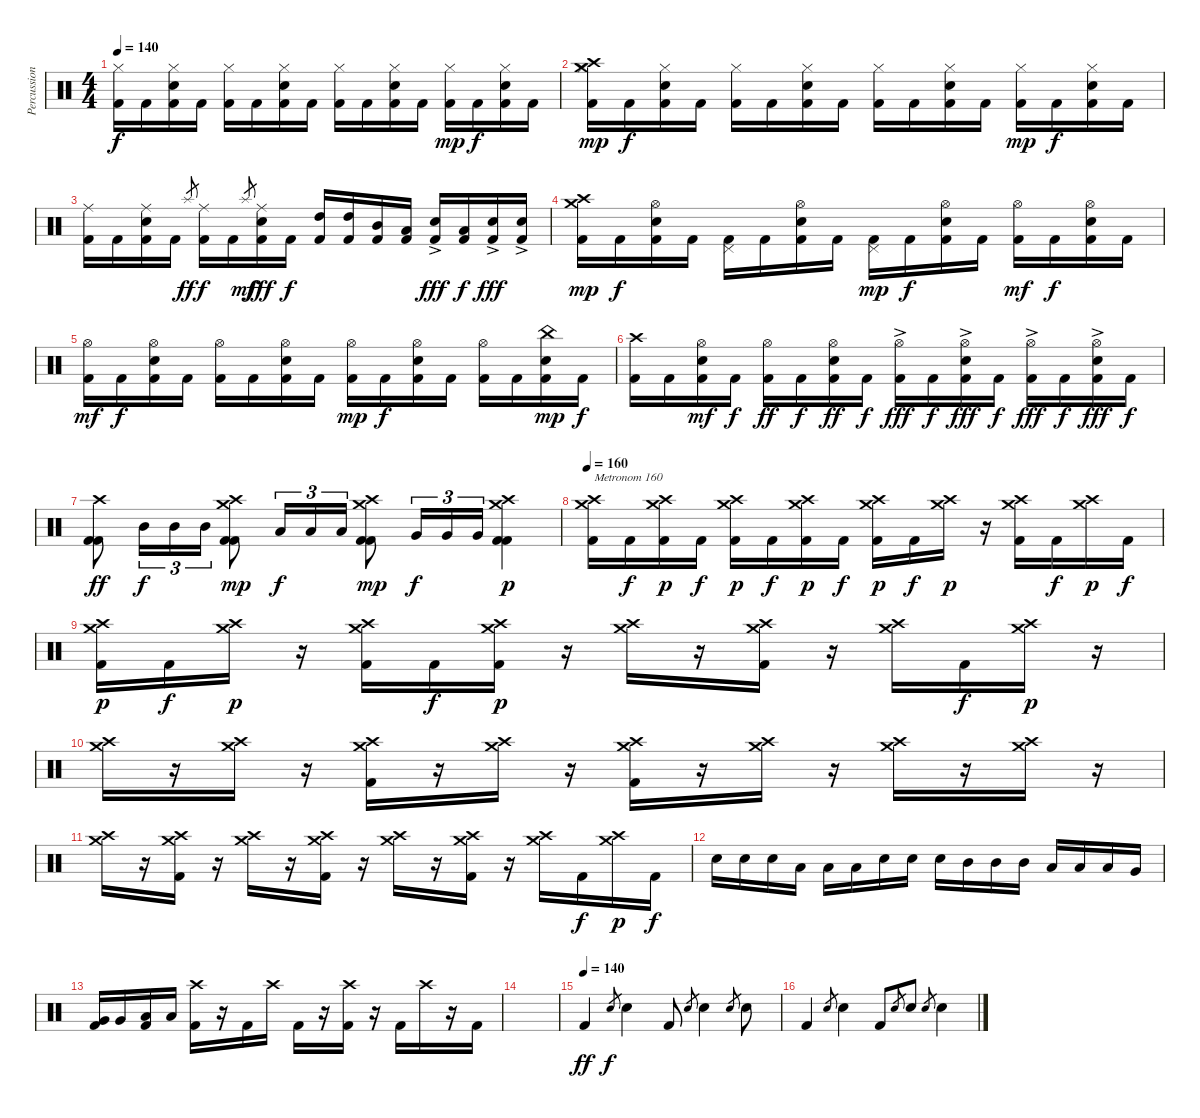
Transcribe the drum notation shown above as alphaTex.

\track ("Percussion" "Percussion") {instrument percussion}
\staff {score}
\articulation defaults
\ts (4 4)
\tempo 140
\clef neutral
\ks c
("Hi-Hat (closed)" "Kick (hit) 2").16{dy f} "Kick (hit) 2".16 ("Hi-Hat (closed)" "Electric Snare (hit)" "Kick (hit) 2").16 "Kick (hit) 2".16 ("Hi-Hat (closed)" "Kick (hit) 2").16 "Kick (hit) 2".16 ("Hi-Hat (closed)" "Electric Snare (hit)" "Kick (hit) 2").16 "Kick (hit) 2".16 ("Hi-Hat (closed)" "Kick (hit) 2").16 "Kick (hit) 2".16 ("Hi-Hat (closed)" "Electric Snare (hit)" "Kick (hit) 2").16 "Kick (hit) 2".16 ("Hi-Hat (closed)" "Kick (hit) 2").16{dy mp} "Kick (hit) 2".16{dy f} ("Hi-Hat (closed)" "Electric Snare (hit)" "Kick (hit) 2").16 "Kick (hit) 2".16 |
("Crash medium (hit)" "Crash high (hit)" "Hi-Hat (closed)" "Kick (hit) 2").16{dy mp} "Kick (hit) 2".16{dy f} ("Hi-Hat (closed)" "Electric Snare (hit)" "Kick (hit) 2").16 "Kick (hit) 2".16 ("Hi-Hat (closed)" "Kick (hit) 2").16 "Kick (hit) 2".16 ("Hi-Hat (closed)" "Electric Snare (hit)" "Kick (hit) 2").16 "Kick (hit) 2".16 ("Hi-Hat (closed)" "Kick (hit) 2").16 "Kick (hit) 2".16 ("Hi-Hat (closed)" "Electric Snare (hit)" "Kick (hit) 2").16 "Kick (hit) 2".16 ("Hi-Hat (closed)" "Kick (hit) 2").16{dy mp} "Kick (hit) 2".16{dy f} ("Hi-Hat (closed)" "Electric Snare (hit)" "Kick (hit) 2").16 "Kick (hit) 2".16 |
("Ride (middle)" "Kick (hit) 2").16 "Kick (hit) 2".16 ("Ride (middle)" "Electric Snare (hit)" "Kick (hit) 2").16 "Kick (hit) 2".16 "Splash (hit)".8{gr dy ff} ("Ride (middle)" "Kick (hit) 2").16{dy f} "Kick (hit) 2".16 "Splash (hit)".8{gr dy mf} ("Ride (middle)" "Electric Snare (hit)" "Kick (hit) 2").16{dy fff} "Kick (hit) 2".16{dy f} ("High Tom (hit)" "Kick (hit) 2").16 ("High Tom (hit)" "Kick (hit) 2").16 ("Mid Tom (hit)" "Kick (hit) 2").16 ("Low Tom (hit)" "Kick (hit) 2").16 ("Electric Snare (hit)"{ac} "Kick (hit) 2").16{dy fff} ("Low Tom (hit)" "Kick (hit) 2").16{dy f} ("Electric Snare (hit)"{ac} "Kick (hit) 2").16{dy fff} ("Electric Snare (hit)"{ac} "Kick (hit) 2").16 |
("Crash medium (hit)" "Crash high (hit)" "Kick (hit) 2").16{dy mp} "Kick (hit) 2".16{dy f} ("Hi-Hat (open)" "Electric Snare (hit)" "Kick (hit) 2").16 "Kick (hit) 2".16 ("Pedal Hi-Hat (hit)" "Kick (hit) 2").16 "Kick (hit) 2".16 ("Hi-Hat (open)" "Electric Snare (hit)" "Kick (hit) 2").16 "Kick (hit) 2".16 ("Pedal Hi-Hat (hit)" "Kick (hit) 2").16{dy mp} "Kick (hit) 2".16{dy f} ("Hi-Hat (open)" "Electric Snare (hit)" "Kick (hit) 2").16 "Kick (hit) 2".16 ("Hi-Hat (open)" "Kick (hit) 2").16{dy mf} "Kick (hit) 2".16{dy f} ("Hi-Hat (open)" "Electric Snare (hit)" "Kick (hit) 2").16 "Kick (hit) 2".16 |
("Hi-Hat (open)" "Kick (hit) 2").16{dy mf} "Kick (hit) 2".16{dy f} ("Hi-Hat (open)" "Electric Snare (hit)" "Kick (hit) 2").16 "Kick (hit) 2".16 ("Hi-Hat (open)" "Kick (hit) 2").16 "Kick (hit) 2".16 ("Hi-Hat (open)" "Electric Snare (hit)" "Kick (hit) 2").16 "Kick (hit) 2".16 ("Hi-Hat (open)" "Kick (hit) 2").16{dy mp} "Kick (hit) 2".16{dy f} ("Hi-Hat (open)" "Electric Snare (hit)" "Kick (hit) 2").16 "Kick (hit) 2".16 ("Hi-Hat (open)" "Kick (hit) 2").16 "Kick (hit) 2".16 ("China (hit)" "Electric Snare (hit)" "Kick (hit) 2").16{dy mp} "Kick (hit) 2".16{dy f} |
("Crash high (hit)" "Kick (hit) 2").16 "Kick (hit) 2".16 ("Hi-Hat (open)" "Electric Snare (hit)" "Kick (hit) 2").16{dy mf} "Kick (hit) 2".16{dy f} ("Hi-Hat (open)" "Kick (hit) 2").16{dy ff} "Kick (hit) 2".16{dy f} ("Hi-Hat (open)" "Electric Snare (hit)" "Kick (hit) 2").16{dy ff} "Kick (hit) 2".16{dy f} ("Hi-Hat (open)"{ac} "Kick (hit) 2").16{dy fff} "Kick (hit) 2".16{dy f} ("Hi-Hat (open)"{ac} "Electric Snare (hit)" "Kick (hit) 2").16{dy fff} "Kick (hit) 2".16{dy f} ("Hi-Hat (open)"{ac} "Kick (hit) 2").16{dy fff} "Kick (hit) 2".16{dy f} ("Hi-Hat (open)"{ac} "Electric Snare (hit)" "Kick (hit) 2").16{dy fff} "Kick (hit) 2".16{dy f} |
("Crash high (hit)" "Kick (hit) 2" "Kick (hit) 2").8{dy ff} "Mid Tom (hit)".16{tu (3 2) dy f} "Mid Tom (hit)".16{tu (3 2)} "Mid Tom (hit)".16{tu (3 2)} ("Crash high (hit)" "Crash medium (hit)" "Kick (hit) 2" "Kick (hit) 2").8{dy mp} "Low Tom (hit)".16{tu (3 2) dy f} "Low Tom (hit)".16{tu (3 2)} "Low Tom (hit)".16{tu (3 2)} ("Crash medium (hit)" "Crash high (hit)" "Kick (hit) 2" "Kick (hit) 2").8{dy mp} "Very Low Tom (hit)".16{tu (3 2) dy f} "Very Low Tom (hit)".16{tu (3 2)} "Very Low Tom (hit)".16{tu (3 2)} ("Crash medium (hit)" "Crash high (hit)" "Kick (hit) 2" "Kick (hit) 2").4{dy p} |
\tempo 160
("Crash high (hit)" "Crash medium (hit)" "Kick (hit) 2").16{txt "Metronom 160"} "Kick (hit) 2".16{dy f} ("Crash medium (hit)" "Crash high (hit)" "Kick (hit) 2").16{dy p} "Kick (hit) 2".16{dy f} ("Crash high (hit)" "Crash medium (hit)" "Kick (hit) 2").16{dy p} "Kick (hit) 2".16{dy f} ("Crash medium (hit)" "Crash high (hit)" "Kick (hit) 2").16{dy p} "Kick (hit) 2".16{dy f} ("Crash high (hit)" "Crash medium (hit)" "Kick (hit) 2").16{dy p} "Kick (hit) 2".16{dy f} ("Crash medium (hit)" "Crash high (hit)").16{dy p} r.16 ("Crash high (hit)" "Crash medium (hit)" "Kick (hit) 2").16 "Kick (hit) 2".16{dy f} ("Crash medium (hit)" "Crash high (hit)").16{dy p} "Kick (hit) 2".16{dy f} |
("Crash high (hit)" "Crash medium (hit)" "Kick (hit) 2").16{dy p} "Kick (hit) 2".16{dy f} ("Crash medium (hit)" "Crash high (hit)").16{dy p} r.16 ("Crash high (hit)" "Crash medium (hit)" "Kick (hit) 2").16 "Kick (hit) 2".16{dy f} ("Crash medium (hit)" "Crash high (hit)" "Kick (hit) 2").16{dy p} r.16 ("Crash high (hit)" "Crash medium (hit)").16 r.16 ("Crash medium (hit)" "Crash high (hit)" "Kick (hit) 2").16 r.16 ("Crash high (hit)" "Crash medium (hit)").16 "Kick (hit) 2".16{dy f} ("Crash medium (hit)" "Crash high (hit)").16{dy p} r.16 |
("Crash high (hit)" "Crash medium (hit)").16 r.16 ("Crash medium (hit)" "Crash high (hit)").16 r.16 ("Crash high (hit)" "Crash medium (hit)" "Kick (hit) 2").16 r.16 ("Crash medium (hit)" "Crash high (hit)").16 r.16 ("Crash high (hit)" "Crash medium (hit)" "Kick (hit) 2").16 r.16 ("Crash medium (hit)" "Crash high (hit)").16 r.16 ("Crash high (hit)" "Crash medium (hit)").16 r.16 ("Crash medium (hit)" "Crash high (hit)").16 r.16 |
("Crash high (hit)" "Crash medium (hit)").16 r.16 ("Crash medium (hit)" "Crash high (hit)" "Kick (hit) 2").16 r.16 ("Crash high (hit)" "Crash medium (hit)").16 r.16 ("Crash medium (hit)" "Crash high (hit)" "Kick (hit) 2").16 r.16 ("Crash high (hit)" "Crash medium (hit)").16 r.16 ("Crash medium (hit)" "Crash high (hit)" "Kick (hit) 2").16 r.16 ("Crash high (hit)" "Crash medium (hit)").16 "Kick (hit) 2".16{dy f} ("Crash medium (hit)" "Crash high (hit)").16{dy p} "Kick (hit) 2".16{dy f} |
"Electric Snare (hit)".16 "Electric Snare (hit)".16 "Electric Snare (hit)".16 "Low Tom (hit)".16 "Low Tom (hit)".16 "Low Tom (hit)".16 "Electric Snare (hit)".16 "Electric Snare (hit)".16 "Electric Snare (hit)".16 "Mid Tom (hit)".16 "Mid Tom (hit)".16 "Mid Tom (hit)".16 "Low Tom (hit)".16 "Low Tom (hit)".16 "Low Tom (hit)".16 "Very Low Tom (hit)".16 |
("Very Low Tom (hit)" "Kick (hit) 2").16 "Very Low Tom (hit)".16 ("Low Floor Tom (hit)" "Kick (hit) 2").16 "Low Floor Tom (hit)".16 ("Crash high (hit)" "Kick (hit) 2").16 r.16 "Kick (hit) 2".16 "Crash high (hit)".16 "Kick (hit) 2".16 r.16 ("Crash high (hit)" "Kick (hit) 2").16 r.16 "Kick (hit) 2".16 "Crash high (hit)".16 r.16 "Kick (hit) 2".16 |
|
\tempo (140)
"Kick (hit) 2".4{dy ff} "Electric Snare (hit)".8{gr dy f} "Electric Snare (hit)".4 "Kick (hit) 2".8 "Electric Snare (hit)".8{gr} "Electric Snare (hit)".4 "Electric Snare (hit)".8{gr} "Electric Snare (hit)".8 |
"Kick (hit) 2".4 "Electric Snare (hit)".8{gr} "Electric Snare (hit)".4 "Kick (hit) 2".8 "Electric Snare (hit)".8{gr} "Electric Snare (hit)".8 "Electric Snare (hit)".8{gr} "Electric Snare (hit)".4
